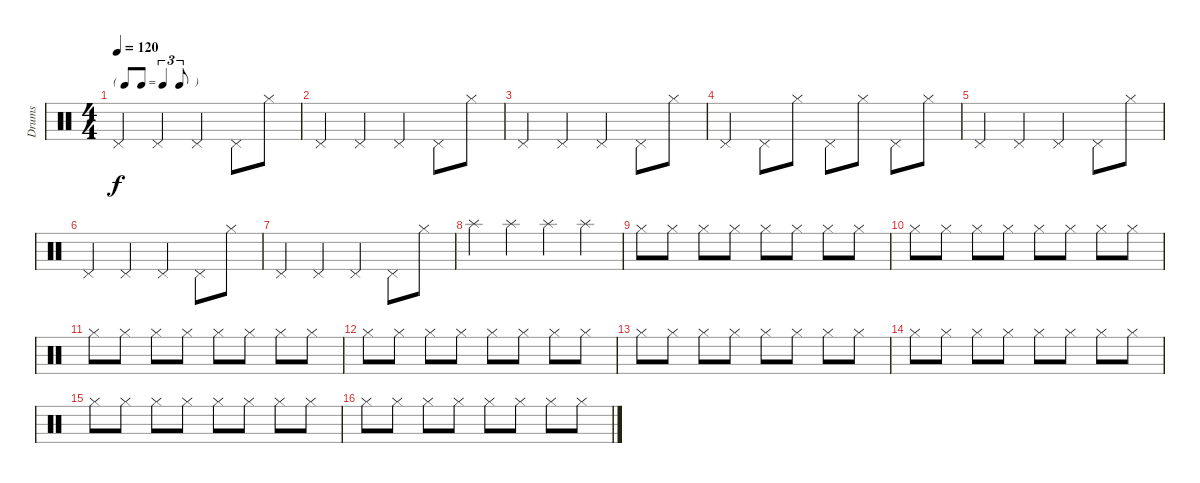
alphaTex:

\track ("Drums" "Drums") {instrument percussion}
\staff {score}
\articulation defaults
\ts (4 4)
\tf triplet8th
\tempo 120
\clef neutral
\ks c "Pedal Hi-Hat (hit)".4{dy f} "Pedal Hi-Hat (hit)".4 "Pedal Hi-Hat (hit)".4 "Pedal Hi-Hat (hit)".8 "Hi-Hat (closed)".8
|
"Pedal Hi-Hat (hit)".4 "Pedal Hi-Hat (hit)".4 "Pedal Hi-Hat (hit)".4 "Pedal Hi-Hat (hit)".8 "Hi-Hat (closed)".8 |
"Pedal Hi-Hat (hit)".4 "Pedal Hi-Hat (hit)".4 "Pedal Hi-Hat (hit)".4 "Pedal Hi-Hat (hit)".8 "Hi-Hat (closed)".8 |
"Pedal Hi-Hat (hit)".4 "Pedal Hi-Hat (hit)".8 "Hi-Hat (closed)".8 "Pedal Hi-Hat (hit)".8 "Hi-Hat (closed)".8 "Pedal Hi-Hat (hit)".8 "Hi-Hat (closed)".8 |
"Pedal Hi-Hat (hit)".4 "Pedal Hi-Hat (hit)".4 "Pedal Hi-Hat (hit)".4 "Pedal Hi-Hat (hit)".8 "Hi-Hat (closed)".8 |
"Pedal Hi-Hat (hit)".4 "Pedal Hi-Hat (hit)".4 "Pedal Hi-Hat (hit)".4 "Pedal Hi-Hat (hit)".8 "Hi-Hat (closed)".8 |
"Pedal Hi-Hat (hit)".4 "Pedal Hi-Hat (hit)".4 "Pedal Hi-Hat (hit)".4 "Pedal Hi-Hat (hit)".8 "Hi-Hat (closed)".8 |
"Splash (hit)".4 "Splash (hit)".4 "Splash (hit)".4 "Splash (hit)".4 |
"Hi-Hat (closed)".8 "Hi-Hat (closed)".8 "Hi-Hat (closed)".8 "Hi-Hat (closed)".8 "Hi-Hat (closed)".8 "Hi-Hat (closed)".8 "Hi-Hat (closed)".8 "Hi-Hat (closed)".8 |
"Hi-Hat (closed)".8 "Hi-Hat (closed)".8 "Hi-Hat (closed)".8 "Hi-Hat (closed)".8 "Hi-Hat (closed)".8 "Hi-Hat (closed)".8 "Hi-Hat (closed)".8 "Hi-Hat (closed)".8 |
"Hi-Hat (closed)".8 "Hi-Hat (closed)".8 "Hi-Hat (closed)".8 "Hi-Hat (closed)".8 "Hi-Hat (closed)".8 "Hi-Hat (closed)".8 "Hi-Hat (closed)".8 "Hi-Hat (closed)".8 |
"Hi-Hat (closed)".8 "Hi-Hat (closed)".8 "Hi-Hat (closed)".8 "Hi-Hat (closed)".8 "Hi-Hat (closed)".8 "Hi-Hat (closed)".8 "Hi-Hat (closed)".8 "Hi-Hat (closed)".8 |
"Hi-Hat (closed)".8 "Hi-Hat (closed)".8 "Hi-Hat (closed)".8 "Hi-Hat (closed)".8 "Hi-Hat (closed)".8 "Hi-Hat (closed)".8 "Hi-Hat (closed)".8 "Hi-Hat (closed)".8 |
"Hi-Hat (closed)".8 "Hi-Hat (closed)".8 "Hi-Hat (closed)".8 "Hi-Hat (closed)".8 "Hi-Hat (closed)".8 "Hi-Hat (closed)".8 "Hi-Hat (closed)".8 "Hi-Hat (closed)".8 |
"Hi-Hat (closed)".8 "Hi-Hat (closed)".8 "Hi-Hat (closed)".8 "Hi-Hat (closed)".8 "Hi-Hat (closed)".8 "Hi-Hat (closed)".8 "Hi-Hat (closed)".8 "Hi-Hat (closed)".8 |
"Hi-Hat (closed)".8 "Hi-Hat (closed)".8 "Hi-Hat (closed)".8 "Hi-Hat (closed)".8 "Hi-Hat (closed)".8 "Hi-Hat (closed)".8 "Hi-Hat (closed)".8 "Hi-Hat (closed)".8
